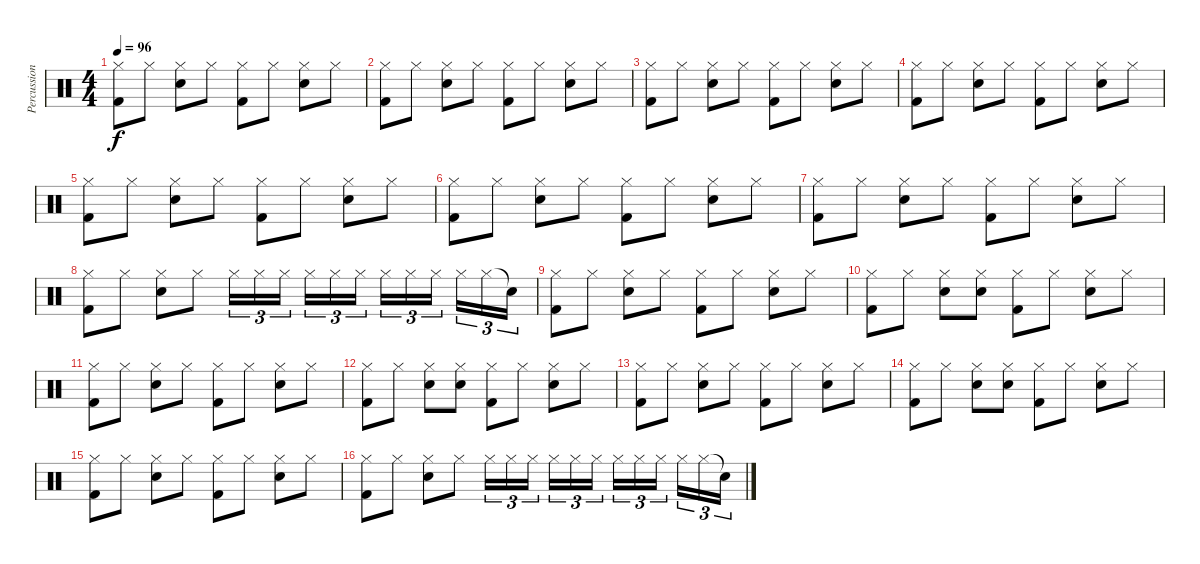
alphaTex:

\track ("Percussion" "Percussion") {instrument percussion}
\staff {score}
\articulation defaults
\ts (4 4)
\tempo 96
\clef neutral
\ks c
("Hi-Hat (closed)" "Kick (hit) 2").8{dy f} "Hi-Hat (closed)".8 ("Hi-Hat (closed)" "Snare (hit) 2").8 "Hi-Hat (closed)".8 ("Hi-Hat (closed)" "Kick (hit) 2").8 "Hi-Hat (closed)".8 ("Hi-Hat (closed)" "Snare (hit) 2").8 "Hi-Hat (closed)".8 |
("Hi-Hat (closed)" "Kick (hit) 2").8 "Hi-Hat (closed)".8 ("Hi-Hat (closed)" "Snare (hit) 2").8 "Hi-Hat (closed)".8 ("Hi-Hat (closed)" "Kick (hit) 2").8 "Hi-Hat (closed)".8 ("Hi-Hat (closed)" "Snare (hit) 2").8 "Hi-Hat (closed)".8 |
("Hi-Hat (closed)" "Kick (hit) 2").8 "Hi-Hat (closed)".8 ("Hi-Hat (closed)" "Snare (hit) 2").8 "Hi-Hat (closed)".8 ("Hi-Hat (closed)" "Kick (hit) 2").8 "Hi-Hat (closed)".8 ("Hi-Hat (closed)" "Snare (hit) 2").8 "Hi-Hat (closed)".8 |
("Hi-Hat (closed)" "Kick (hit) 2").8 "Hi-Hat (closed)".8 ("Hi-Hat (closed)" "Snare (hit) 2").8 "Hi-Hat (closed)".8 ("Hi-Hat (closed)" "Kick (hit) 2").8 "Hi-Hat (closed)".8 ("Hi-Hat (closed)" "Snare (hit) 2").8 "Hi-Hat (closed)".8 |
("Hi-Hat (closed)" "Kick (hit) 2").8 "Hi-Hat (closed)".8 ("Hi-Hat (closed)" "Snare (hit) 2").8 "Hi-Hat (closed)".8 ("Hi-Hat (closed)" "Kick (hit) 2").8 "Hi-Hat (closed)".8 ("Hi-Hat (closed)" "Snare (hit) 2").8 "Hi-Hat (closed)".8 |
("Hi-Hat (closed)" "Kick (hit) 2").8 "Hi-Hat (closed)".8 ("Hi-Hat (closed)" "Snare (hit) 2").8 "Hi-Hat (closed)".8 ("Hi-Hat (closed)" "Kick (hit) 2").8 "Hi-Hat (closed)".8 ("Hi-Hat (closed)" "Snare (hit) 2").8 "Hi-Hat (closed)".8 |
("Hi-Hat (closed)" "Kick (hit) 2").8 "Hi-Hat (closed)".8 ("Hi-Hat (closed)" "Snare (hit) 2").8 "Hi-Hat (closed)".8 ("Hi-Hat (closed)" "Kick (hit) 2").8 "Hi-Hat (closed)".8 ("Hi-Hat (closed)" "Snare (hit) 2").8 "Hi-Hat (closed)".8 |
("Hi-Hat (closed)" "Kick (hit) 2").8 "Hi-Hat (closed)".8 ("Hi-Hat (closed)" "Snare (hit) 2").8 "Hi-Hat (closed)".8 "Hi-Hat (closed)".16{tu (3 2)} "Hi-Hat (closed)".16{tu (3 2)} "Hi-Hat (closed)".16{tu (3 2)} "Hi-Hat (closed)".16{tu (3 2)} "Hi-Hat (closed)".16{tu (3 2)} "Hi-Hat (closed)".16{tu (3 2)} "Hi-Hat (closed)".16{tu (3 2)} "Hi-Hat (closed)".16{tu (3 2)} "Hi-Hat (closed)".16{tu (3 2)} "Hi-Hat (closed)".16{tu (3 2)} "Hi-Hat (closed)".16{tu (3 2)} "Snare (hit)"{t}.16{tu (3 2)} |
("Hi-Hat (closed)" "Kick (hit) 2").8 "Hi-Hat (closed)".8 ("Hi-Hat (closed)" "Snare (hit) 2").8 "Hi-Hat (closed)".8 ("Hi-Hat (closed)" "Kick (hit) 2").8 "Hi-Hat (closed)".8 ("Hi-Hat (closed)" "Snare (hit) 2").8 "Hi-Hat (closed)".8 |
("Hi-Hat (closed)" "Kick (hit) 2").8 "Hi-Hat (closed)".8 ("Hi-Hat (closed)" "Snare (hit) 2").8 ("Hi-Hat (closed)" "Snare (hit) 2").8 ("Hi-Hat (closed)" "Kick (hit) 2").8 "Hi-Hat (closed)".8 ("Hi-Hat (closed)" "Snare (hit) 2").8 "Hi-Hat (closed)".8 |
("Hi-Hat (closed)" "Kick (hit) 2").8 "Hi-Hat (closed)".8 ("Hi-Hat (closed)" "Snare (hit) 2").8 "Hi-Hat (closed)".8 ("Hi-Hat (closed)" "Kick (hit) 2").8 "Hi-Hat (closed)".8 ("Hi-Hat (closed)" "Snare (hit) 2").8 "Hi-Hat (closed)".8 |
("Hi-Hat (closed)" "Kick (hit) 2").8 "Hi-Hat (closed)".8 ("Hi-Hat (closed)" "Snare (hit) 2").8 ("Hi-Hat (closed)" "Snare (hit) 2").8 ("Hi-Hat (closed)" "Kick (hit) 2").8 "Hi-Hat (closed)".8 ("Hi-Hat (closed)" "Snare (hit) 2").8 "Hi-Hat (closed)".8 |
("Hi-Hat (closed)" "Kick (hit) 2").8 "Hi-Hat (closed)".8 ("Hi-Hat (closed)" "Snare (hit) 2").8 "Hi-Hat (closed)".8 ("Hi-Hat (closed)" "Kick (hit) 2").8 "Hi-Hat (closed)".8 ("Hi-Hat (closed)" "Snare (hit) 2").8 "Hi-Hat (closed)".8 |
("Hi-Hat (closed)" "Kick (hit) 2").8 "Hi-Hat (closed)".8 ("Hi-Hat (closed)" "Snare (hit) 2").8 ("Hi-Hat (closed)" "Snare (hit) 2").8 ("Hi-Hat (closed)" "Kick (hit) 2").8 "Hi-Hat (closed)".8 ("Hi-Hat (closed)" "Snare (hit) 2").8 "Hi-Hat (closed)".8 |
("Hi-Hat (closed)" "Kick (hit) 2").8 "Hi-Hat (closed)".8 ("Hi-Hat (closed)" "Snare (hit) 2").8 "Hi-Hat (closed)".8 ("Hi-Hat (closed)" "Kick (hit) 2").8 "Hi-Hat (closed)".8 ("Hi-Hat (closed)" "Snare (hit) 2").8 "Hi-Hat (closed)".8 |
("Hi-Hat (closed)" "Kick (hit) 2").8 "Hi-Hat (closed)".8 ("Hi-Hat (closed)" "Snare (hit) 2").8 "Hi-Hat (closed)".8 "Hi-Hat (closed)".16{tu (3 2)} "Hi-Hat (closed)".16{tu (3 2)} "Hi-Hat (closed)".16{tu (3 2)} "Hi-Hat (closed)".16{tu (3 2)} "Hi-Hat (closed)".16{tu (3 2)} "Hi-Hat (closed)".16{tu (3 2)} "Hi-Hat (closed)".16{tu (3 2)} "Hi-Hat (closed)".16{tu (3 2)} "Hi-Hat (closed)".16{tu (3 2)} "Hi-Hat (closed)".16{tu (3 2)} "Hi-Hat (closed)".16{tu (3 2)} "Snare (hit)"{t}.16{tu (3 2)}
